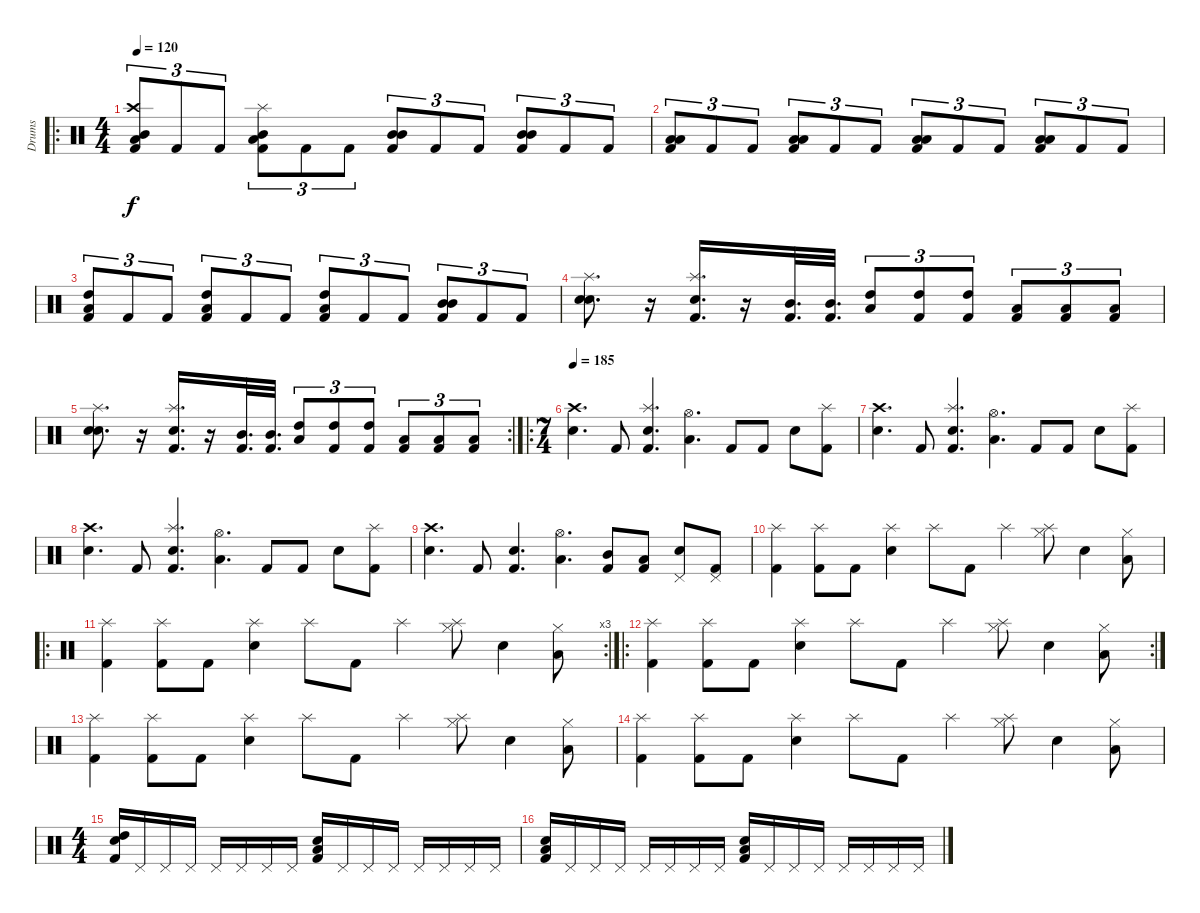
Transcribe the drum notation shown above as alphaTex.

\track ("Drums" "Drums") {instrument percussion}
\staff {score}
\articulation defaults
\ro
\ts (4 4)
\tempo 120
\clef neutral
\ks c
("Low Tom (hit)" "Mid Tom (hit)" "Crash high (hit)" "Kick (hit) 2").8{tu (3 2) dy f} "Kick (hit) 2".8{tu (3 2)} "Kick (hit) 2".8{tu (3 2)} ("Low Tom (hit)" "Mid Tom (hit)" "Splash (hit)" "Kick (hit) 2").8{tu (3 2)} "Kick (hit) 2".8{tu (3 2)} "Kick (hit) 2".8{tu (3 2)} ("Mid Tom (hit)" "Mid Tom (hit)" "Kick (hit) 2").8{tu (3 2)} "Kick (hit) 2".8{tu (3 2)} "Kick (hit) 2".8{tu (3 2)} ("Mid Tom (hit)" "Mid Tom (hit)" "Kick (hit) 2").8{tu (3 2)} "Kick (hit) 2".8{tu (3 2)} "Kick (hit) 2".8{tu (3 2)} |
("Low Tom (hit)" "Low Tom (hit)" "Kick (hit) 2").8{tu (3 2)} "Kick (hit) 2".8{tu (3 2)} "Kick (hit) 2".8{tu (3 2)} ("Low Tom (hit)" "Low Tom (hit)" "Kick (hit) 2").8{tu (3 2)} "Kick (hit) 2".8{tu (3 2)} "Kick (hit) 2".8{tu (3 2)} ("Low Tom (hit)" "Low Tom (hit)" "Kick (hit) 2").8{tu (3 2)} "Kick (hit) 2".8{tu (3 2)} "Kick (hit) 2".8{tu (3 2)} ("Low Tom (hit)" "Low Tom (hit)" "Kick (hit) 2").8{tu (3 2)} "Kick (hit) 2".8{tu (3 2)} "Kick (hit) 2".8{tu (3 2)} |
("Low Tom (hit)" "High Tom (hit)" "Kick (hit) 2").8{tu (3 2)} "Kick (hit) 2".8{tu (3 2)} "Kick (hit) 2".8{tu (3 2)} ("Low Tom (hit)" "High Tom (hit)" "Kick (hit) 2").8{tu (3 2)} "Kick (hit) 2".8{tu (3 2)} "Kick (hit) 2".8{tu (3 2)} ("Low Tom (hit)" "High Tom (hit)" "Kick (hit) 2").8{tu (3 2)} "Kick (hit) 2".8{tu (3 2)} "Kick (hit) 2".8{tu (3 2)} ("Mid Tom (hit)" "Mid Tom (hit)" "Kick (hit) 2").8{tu (3 2)} "Kick (hit) 2".8{tu (3 2)} "Kick (hit) 2".8{tu (3 2)} |
("Splash (hit)" "Snare (hit) 2" "Electric Snare (hit)").8{d} r.16 ("Splash (hit)" "Electric Snare (hit)" "Kick (hit) 2").16{d} r.16 ("Mid Tom (hit)" "Kick (hit) 2").32{d} ("Mid Tom (hit)" "Kick (hit) 2").32{d} ("High Tom (hit)" "Low Tom (hit)").8{tu (3 2)} ("High Tom (hit)" "Kick (hit) 2").8{tu (3 2)} ("High Tom (hit)" "Kick (hit) 2").8{tu (3 2)} ("Low Tom (hit)" "Kick (hit) 2").8{tu (3 2)} ("Low Tom (hit)" "Kick (hit) 2").8{tu (3 2)} ("Low Tom (hit)" "Kick (hit) 2").8{tu (3 2)} |
\rc 2
("Splash (hit)" "Snare (hit) 2" "Electric Snare (hit)").8{d} r.16 ("Electric Snare (hit)" "Splash (hit)" "Kick (hit) 2").16{d} r.16 ("Mid Tom (hit)" "Kick (hit) 2").32{d} ("Mid Tom (hit)" "Kick (hit) 2").32{d} ("High Tom (hit)" "Low Tom (hit)").8{tu (3 2)} ("High Tom (hit)" "Kick (hit) 2").8{tu (3 2)} ("High Tom (hit)" "Kick (hit) 2").8{tu (3 2)} ("Low Tom (hit)" "Kick (hit) 2").8{tu (3 2)} ("Low Tom (hit)" "Kick (hit) 2").8{tu (3 2)} ("Low Tom (hit)" "Kick (hit) 2").8{tu (3 2)} |
\ro
\ts (7 4)
\tempo 185
("Crash high (hit)" "Electric Snare (hit)").4{d} "Kick (hit) 2".8 ("Splash (hit)" "Kick (hit) 2" "Electric Snare (hit)").4{d} ("Hi-Hat (open)" "Low Tom (hit)").4{d} "Kick (hit) 2".8 "Kick (hit) 2".8 "Electric Snare (hit)".8 ("Splash (hit)" "Kick (hit) 2").8 |
("Crash high (hit)" "Electric Snare (hit)").4{d} "Kick (hit) 2".8 ("Splash (hit)" "Kick (hit) 2" "Electric Snare (hit)").4{d} ("Hi-Hat (open)" "Low Tom (hit)").4{d} "Kick (hit) 2".8 "Kick (hit) 2".8 "Electric Snare (hit)".8 ("Splash (hit)" "Kick (hit) 2").8 |
("Crash high (hit)" "Electric Snare (hit)").4{d} "Kick (hit) 2".8 ("Splash (hit)" "Kick (hit) 2" "Electric Snare (hit)").4{d} ("Hi-Hat (open)" "Low Tom (hit)").4{d} "Kick (hit) 2".8 "Kick (hit) 2".8 "Electric Snare (hit)".8 ("Splash (hit)" "Kick (hit) 2").8 |
("Crash high (hit)" "Electric Snare (hit)").4{d} "Kick (hit) 2".8 ("Kick (hit) 2" "Electric Snare (hit)").4{d} ("Hi-Hat (open)" "Low Tom (hit)").4{d} ("Mid Tom (hit)" "Kick (hit) 2").8 ("Low Tom (hit)" "Kick (hit) 2").8 ("Pedal Hi-Hat (hit)" "Electric Snare (hit)").8 ("Pedal Hi-Hat (hit)" "Kick (hit) 2").8 |
("Kick (hit) 2" "Splash (hit)").4 ("Splash (hit)" "Kick (hit) 2").8 "Kick (hit) 2".8 ("Splash (hit)" "Electric Snare (hit)").4 "Splash (hit)".8 "Kick (hit) 2".8 "Splash (hit)".4 ("Splash (hit)" "Hi-Hat (closed)").8 "Electric Snare (hit)".4 ("Hi-Hat (closed)" "Low Tom (hit)").8 |
\ro
\rc 3
("Kick (hit) 2" "Splash (hit)").4 ("Splash (hit)" "Kick (hit) 2").8 "Kick (hit) 2".8 ("Splash (hit)" "Electric Snare (hit)").4 "Splash (hit)".8 "Kick (hit) 2".8 "Splash (hit)".4 ("Splash (hit)" "Hi-Hat (closed)").8 "Electric Snare (hit)".4 ("Hi-Hat (closed)" "Low Tom (hit)").8 |
\ro
\rc 2
("Kick (hit) 2" "Splash (hit)").4 ("Splash (hit)" "Kick (hit) 2").8 "Kick (hit) 2".8 ("Splash (hit)" "Electric Snare (hit)").4 "Splash (hit)".8 "Kick (hit) 2".8 "Splash (hit)".4 ("Splash (hit)" "Hi-Hat (closed)").8 "Electric Snare (hit)".4 ("Hi-Hat (closed)" "Low Tom (hit)").8 |
("Kick (hit) 2" "Splash (hit)").4 ("Splash (hit)" "Kick (hit) 2").8 "Kick (hit) 2".8 ("Splash (hit)" "Electric Snare (hit)").4 "Splash (hit)".8 "Kick (hit) 2".8 "Splash (hit)".4 ("Splash (hit)" "Hi-Hat (closed)").8 "Electric Snare (hit)".4 ("Hi-Hat (closed)" "Low Tom (hit)").8 |
("Kick (hit) 2" "Splash (hit)").4 ("Splash (hit)" "Kick (hit) 2").8 "Kick (hit) 2".8 ("Splash (hit)" "Electric Snare (hit)").4 "Splash (hit)".8 "Kick (hit) 2".8 "Splash (hit)".4 ("Splash (hit)" "Hi-Hat (closed)").8 "Electric Snare (hit)".4 ("Hi-Hat (closed)" "Low Tom (hit)").8 |
\ts (4 4)
("Kick (hit) 2" "High Tom (hit)" "Electric Snare (hit)").16 "Pedal Hi-Hat (hit)".16 "Pedal Hi-Hat (hit)".16 "Pedal Hi-Hat (hit)".16 "Pedal Hi-Hat (hit)".16 "Pedal Hi-Hat (hit)".16 "Pedal Hi-Hat (hit)".16 "Pedal Hi-Hat (hit)".16 ("Low Tom (hit)" "Electric Snare (hit)" "Kick (hit) 2").16 "Pedal Hi-Hat (hit)".16 "Pedal Hi-Hat (hit)".16 "Pedal Hi-Hat (hit)".16 "Pedal Hi-Hat (hit)".16 "Pedal Hi-Hat (hit)".16 "Pedal Hi-Hat (hit)".16 "Pedal Hi-Hat (hit)".16 |
("Low Tom (hit)" "Electric Snare (hit)" "Kick (hit) 2").16 "Pedal Hi-Hat (hit)".16 "Pedal Hi-Hat (hit)".16 "Pedal Hi-Hat (hit)".16 "Pedal Hi-Hat (hit)".16 "Pedal Hi-Hat (hit)".16 "Pedal Hi-Hat (hit)".16 "Pedal Hi-Hat (hit)".16 ("Low Tom (hit)" "Electric Snare (hit)" "Kick (hit) 2").16 "Pedal Hi-Hat (hit)".16 "Pedal Hi-Hat (hit)".16 "Pedal Hi-Hat (hit)".16 "Pedal Hi-Hat (hit)".16 "Pedal Hi-Hat (hit)".16 "Pedal Hi-Hat (hit)".16 "Pedal Hi-Hat (hit)".16
